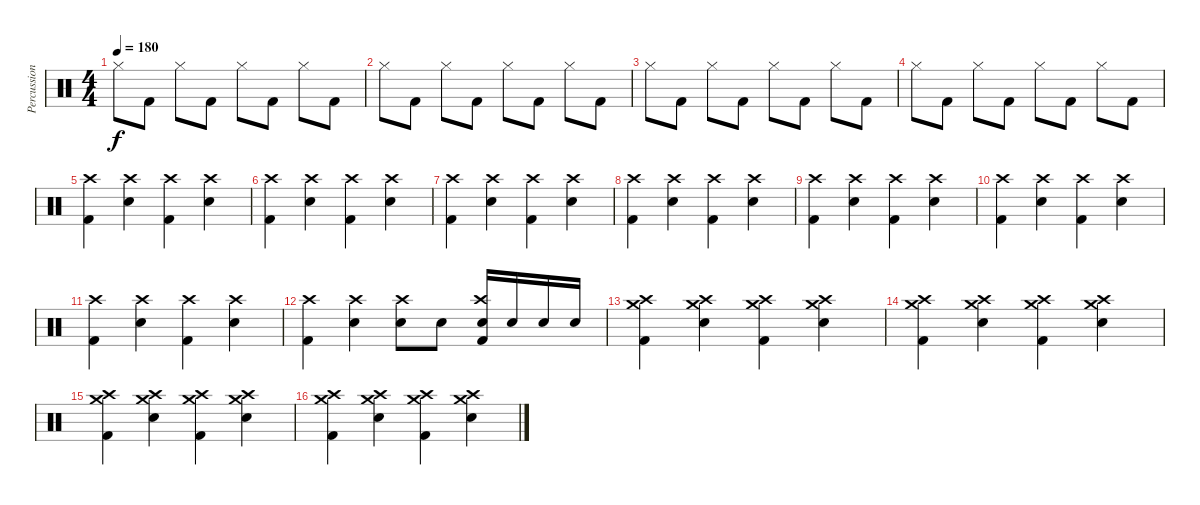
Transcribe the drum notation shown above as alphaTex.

\track ("Percussions" "Percussion") {instrument percussion}
\staff {score}
\articulation defaults
\ts (4 4)
\tempo 180
\clef neutral
\ks c "Hi-Hat (closed)".8{dy f} "Kick (hit) 2".8 "Hi-Hat (closed)".8 "Kick (hit) 2".8 "Hi-Hat (closed)".8 "Kick (hit) 2".8 "Hi-Hat (closed)".8 "Kick (hit) 2".8
|
"Hi-Hat (closed)".8 "Kick (hit) 2".8 "Hi-Hat (closed)".8 "Kick (hit) 2".8 "Hi-Hat (closed)".8 "Kick (hit) 2".8 "Hi-Hat (closed)".8 "Kick (hit) 2".8 |
"Hi-Hat (closed)".8 "Kick (hit) 2".8 "Hi-Hat (closed)".8 "Kick (hit) 2".8 "Hi-Hat (closed)".8 "Kick (hit) 2".8 "Hi-Hat (closed)".8 "Kick (hit) 2".8 |
"Hi-Hat (closed)".8 "Kick (hit) 2".8 "Hi-Hat (closed)".8 "Kick (hit) 2".8 "Hi-Hat (closed)".8 "Kick (hit) 2".8 "Hi-Hat (closed)".8 "Kick (hit) 2".8 |
("Crash high (hit)" "Kick (hit) 2").4 ("Crash high (hit)" "Snare (hit) 2").4 ("Crash high (hit)" "Kick (hit) 2").4 ("Crash high (hit)" "Snare (hit) 2").4 |
("Crash high (hit)" "Kick (hit) 2").4 ("Crash high (hit)" "Snare (hit) 2").4 ("Crash high (hit)" "Kick (hit) 2").4 ("Crash high (hit)" "Snare (hit) 2").4 |
("Crash high (hit)" "Kick (hit) 2").4 ("Crash high (hit)" "Snare (hit) 2").4 ("Crash high (hit)" "Kick (hit) 2").4 ("Crash high (hit)" "Snare (hit) 2").4 |
("Crash high (hit)" "Kick (hit) 2").4 ("Crash high (hit)" "Snare (hit) 2").4 ("Crash high (hit)" "Kick (hit) 2").4 ("Crash high (hit)" "Snare (hit) 2").4 |
("Crash high (hit)" "Kick (hit) 2").4 ("Crash high (hit)" "Snare (hit) 2").4 ("Crash high (hit)" "Kick (hit) 2").4 ("Crash high (hit)" "Snare (hit) 2").4 |
("Crash high (hit)" "Kick (hit) 2").4 ("Crash high (hit)" "Snare (hit) 2").4 ("Crash high (hit)" "Kick (hit) 2").4 ("Crash high (hit)" "Snare (hit) 2").4 |
("Crash high (hit)" "Kick (hit) 2").4 ("Crash high (hit)" "Snare (hit) 2").4 ("Crash high (hit)" "Kick (hit) 2").4 ("Crash high (hit)" "Snare (hit) 2").4 |
("Crash high (hit)" "Kick (hit) 2").4 ("Crash high (hit)" "Snare (hit) 2").4 ("Crash high (hit)" "Snare (hit) 2").8 "Snare (hit) 2".8 ("Crash high (hit)" "Kick (hit) 2" "Snare (hit) 2").16 "Snare (hit) 2".16 "Snare (hit) 2".16 "Snare (hit) 2".16 |
("Crash high (hit)" "Crash medium (hit)" "Kick (hit) 2").4 ("Crash high (hit)" "Crash medium (hit)" "Snare (hit) 2").4 ("Crash high (hit)" "Crash medium (hit)" "Kick (hit) 2").4 ("Crash high (hit)" "Crash medium (hit)" "Snare (hit) 2").4 |
("Crash high (hit)" "Crash medium (hit)" "Kick (hit) 2").4 ("Crash high (hit)" "Crash medium (hit)" "Snare (hit) 2").4 ("Crash high (hit)" "Crash medium (hit)" "Kick (hit) 2").4 ("Crash high (hit)" "Crash medium (hit)" "Snare (hit) 2").4 |
("Crash high (hit)" "Crash medium (hit)" "Kick (hit) 2").4 ("Crash high (hit)" "Crash medium (hit)" "Snare (hit) 2").4 ("Crash high (hit)" "Crash medium (hit)" "Kick (hit) 2").4 ("Crash high (hit)" "Crash medium (hit)" "Snare (hit) 2").4 |
("Crash high (hit)" "Crash medium (hit)" "Kick (hit) 2").4 ("Crash high (hit)" "Crash medium (hit)" "Snare (hit) 2").4 ("Crash high (hit)" "Crash medium (hit)" "Kick (hit) 2").4 ("Crash high (hit)" "Crash medium (hit)" "Snare (hit) 2").4
